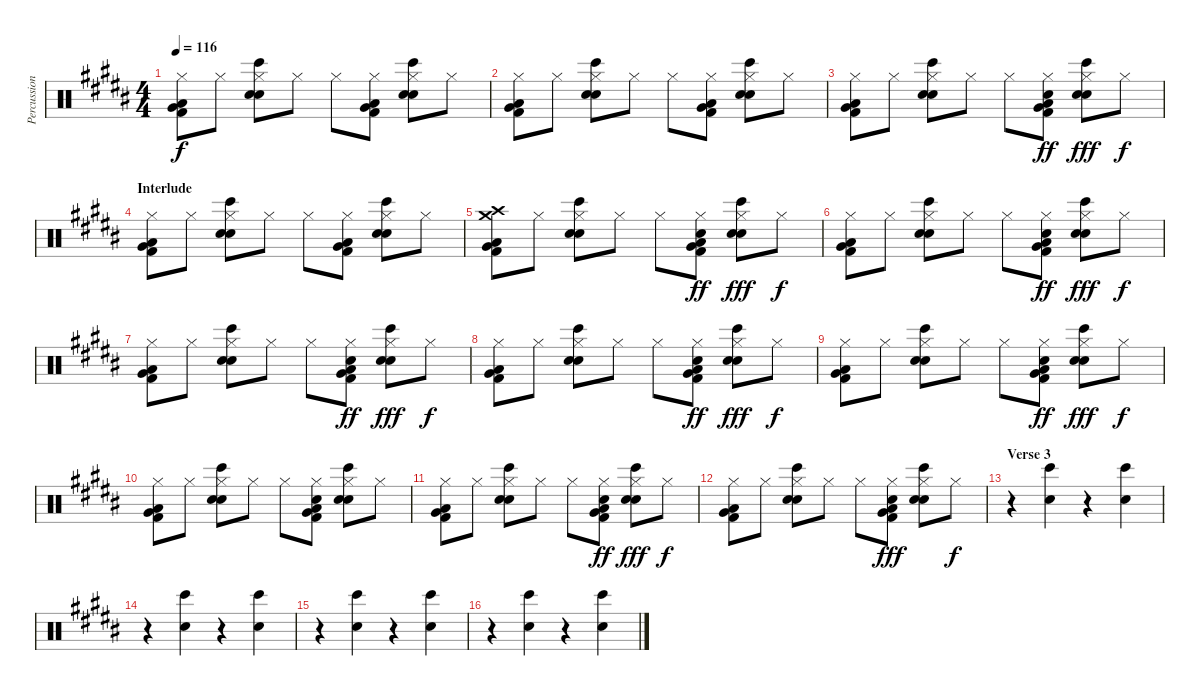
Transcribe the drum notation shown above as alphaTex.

\track ("Percussion" "Percussion") {instrument percussion}
\staff {score}
\articulation defaults
\ts (4 4)
\tempo 116
\clef neutral
\ks b
("Low Tom (hit)" "Very Low Tom (hit)" "Kick (hit) 2" "Hi-Hat (closed)").8{dy f} "Hi-Hat (closed)".8 ("Bongo High (hit)" "Hand Clap (hit)" "Snare (hit) 2" "Hi-Hat (closed)").8 "Hi-Hat (closed)".8 "Hi-Hat (closed)".8 ("Low Tom (hit)" "Very Low Tom (hit)" "Kick (hit) 2" "Hi-Hat (closed)").8 ("Bongo High (hit)" "Hand Clap (hit)" "Snare (hit) 2" "Hi-Hat (closed)").8 "Hi-Hat (closed)".8 |
("Low Tom (hit)" "Very Low Tom (hit)" "Kick (hit) 2" "Hi-Hat (closed)").8 "Hi-Hat (closed)".8 ("Bongo High (hit)" "Hand Clap (hit)" "Snare (hit) 2" "Hi-Hat (closed)").8 "Hi-Hat (closed)".8 "Hi-Hat (closed)".8 ("Low Tom (hit)" "Very Low Tom (hit)" "Kick (hit) 2" "Hi-Hat (closed)").8 ("Bongo High (hit)" "Hand Clap (hit)" "Snare (hit) 2" "Hi-Hat (closed)").8 "Hi-Hat (closed)".8 |
("Low Tom (hit)" "Very Low Tom (hit)" "Kick (hit) 2" "Hi-Hat (closed)").8 "Hi-Hat (closed)".8 ("Bongo High (hit)" "Hand Clap (hit)" "Snare (hit) 2" "Hi-Hat (closed)").8 "Hi-Hat (closed)".8 "Hi-Hat (closed)".8 ("Low Tom (hit)" "Very Low Tom (hit)" "Kick (hit) 2" "Hi-Hat (closed)" "Hand Clap (hit)").8{dy ff} ("Bongo High (hit)" "Hand Clap (hit)" "Snare (hit) 2" "Hi-Hat (closed)").8{dy fff} "Hi-Hat (closed)".8{dy f} |
\section ("" "Interlude")
("Low Tom (hit)" "Very Low Tom (hit)" "Kick (hit) 2" "Hi-Hat (closed)").8 "Hi-Hat (closed)".8 ("Bongo High (hit)" "Hand Clap (hit)" "Snare (hit) 2" "Hi-Hat (closed)").8 "Hi-Hat (closed)".8 "Hi-Hat (closed)".8 ("Low Tom (hit)" "Very Low Tom (hit)" "Kick (hit) 2" "Hi-Hat (closed)").8 ("Bongo High (hit)" "Hand Clap (hit)" "Snare (hit) 2" "Hi-Hat (closed)").8 "Hi-Hat (closed)".8 |
("Low Tom (hit)" "Very Low Tom (hit)" "Kick (hit) 2" "Crash medium (hit)" "Crash high (hit)").8 "Hi-Hat (closed)".8 ("Bongo High (hit)" "Hand Clap (hit)" "Snare (hit) 2" "Hi-Hat (closed)").8 "Hi-Hat (closed)".8 "Hi-Hat (closed)".8 ("Low Tom (hit)" "Very Low Tom (hit)" "Kick (hit) 2" "Hi-Hat (closed)" "Hand Clap (hit)").8{dy ff} ("Bongo High (hit)" "Hand Clap (hit)" "Snare (hit) 2" "Hi-Hat (closed)").8{dy fff} "Hi-Hat (closed)".8{dy f} |
("Low Tom (hit)" "Very Low Tom (hit)" "Kick (hit) 2" "Hi-Hat (closed)").8 "Hi-Hat (closed)".8 ("Bongo High (hit)" "Hand Clap (hit)" "Snare (hit) 2" "Hi-Hat (closed)").8 "Hi-Hat (closed)".8 "Hi-Hat (closed)".8 ("Low Tom (hit)" "Very Low Tom (hit)" "Kick (hit) 2" "Hi-Hat (closed)" "Hand Clap (hit)").8{dy ff} ("Bongo High (hit)" "Hand Clap (hit)" "Snare (hit) 2" "Hi-Hat (closed)").8{dy fff} "Hi-Hat (closed)".8{dy f} |
("Low Tom (hit)" "Very Low Tom (hit)" "Kick (hit) 2" "Hi-Hat (closed)").8 "Hi-Hat (closed)".8 ("Bongo High (hit)" "Hand Clap (hit)" "Snare (hit) 2" "Hi-Hat (closed)").8 "Hi-Hat (closed)".8 "Hi-Hat (closed)".8 ("Low Tom (hit)" "Very Low Tom (hit)" "Kick (hit) 2" "Hi-Hat (closed)" "Hand Clap (hit)").8{dy ff} ("Bongo High (hit)" "Hand Clap (hit)" "Snare (hit) 2" "Hi-Hat (closed)").8{dy fff} "Hi-Hat (closed)".8{dy f} |
("Low Tom (hit)" "Very Low Tom (hit)" "Kick (hit) 2" "Hi-Hat (closed)").8 "Hi-Hat (closed)".8 ("Bongo High (hit)" "Hand Clap (hit)" "Snare (hit) 2" "Hi-Hat (closed)").8 "Hi-Hat (closed)".8 "Hi-Hat (closed)".8 ("Low Tom (hit)" "Very Low Tom (hit)" "Kick (hit) 2" "Hi-Hat (closed)" "Hand Clap (hit)").8{dy ff} ("Bongo High (hit)" "Hand Clap (hit)" "Snare (hit) 2" "Hi-Hat (closed)").8{dy fff} "Hi-Hat (closed)".8{dy f} |
("Low Tom (hit)" "Very Low Tom (hit)" "Kick (hit) 2" "Hi-Hat (closed)").8 "Hi-Hat (closed)".8 ("Bongo High (hit)" "Hand Clap (hit)" "Snare (hit) 2" "Hi-Hat (closed)").8 "Hi-Hat (closed)".8 "Hi-Hat (closed)".8 ("Low Tom (hit)" "Very Low Tom (hit)" "Kick (hit) 2" "Hi-Hat (closed)" "Hand Clap (hit)").8{dy ff} ("Bongo High (hit)" "Hand Clap (hit)" "Snare (hit) 2" "Hi-Hat (closed)").8{dy fff} "Hi-Hat (closed)".8{dy f} |
("Low Tom (hit)" "Very Low Tom (hit)" "Kick (hit) 2" "Hi-Hat (closed)").8 "Hi-Hat (closed)".8 ("Bongo High (hit)" "Hand Clap (hit)" "Snare (hit) 2" "Hi-Hat (closed)").8 "Hi-Hat (closed)".8 "Hi-Hat (closed)".8 ("Low Tom (hit)" "Very Low Tom (hit)" "Kick (hit) 2" "Hi-Hat (closed)" "Hand Clap (hit)").8 ("Bongo High (hit)" "Hand Clap (hit)" "Snare (hit) 2" "Hi-Hat (closed)").8 "Hi-Hat (closed)".8 |
("Low Tom (hit)" "Very Low Tom (hit)" "Kick (hit) 2" "Hi-Hat (closed)").8 "Hi-Hat (closed)".8 ("Bongo High (hit)" "Hand Clap (hit)" "Snare (hit) 2" "Hi-Hat (closed)").8 "Hi-Hat (closed)".8 "Hi-Hat (closed)".8 ("Low Tom (hit)" "Very Low Tom (hit)" "Kick (hit) 2" "Hi-Hat (closed)" "Hand Clap (hit)").8{dy ff} ("Bongo High (hit)" "Hand Clap (hit)" "Snare (hit) 2" "Hi-Hat (closed)").8{dy fff} "Hi-Hat (closed)".8{dy f} |
("Low Tom (hit)" "Very Low Tom (hit)" "Kick (hit) 2" "Hi-Hat (closed)").8 "Hi-Hat (closed)".8 ("Bongo High (hit)" "Hand Clap (hit)" "Hand Clap (hit)" "Hi-Hat (closed)").8 "Hi-Hat (closed)".8 "Hi-Hat (closed)".8 ("Low Tom (hit)" "Very Low Tom (hit)" "Kick (hit) 2" "Hi-Hat (closed)" "Hand Clap (hit)").8{dy fff} ("Bongo High (hit)" "Hand Clap (hit)" "Hand Clap (hit)" "Hi-Hat (closed)").8 "Hi-Hat (closed)".8{dy f} |
\section ("" "Verse 3")
r.4 ("Hand Clap (hit)" "Bongo High (hit)").4 r.4 ("Hand Clap (hit)" "Bongo High (hit)").4 |
r.4 ("Hand Clap (hit)" "Bongo High (hit)").4 r.4 ("Hand Clap (hit)" "Bongo High (hit)").4 |
r.4 ("Hand Clap (hit)" "Bongo High (hit)").4 r.4 ("Hand Clap (hit)" "Bongo High (hit)").4 |
r.4 ("Hand Clap (hit)" "Bongo High (hit)").4 r.4 ("Hand Clap (hit)" "Bongo High (hit)").4
